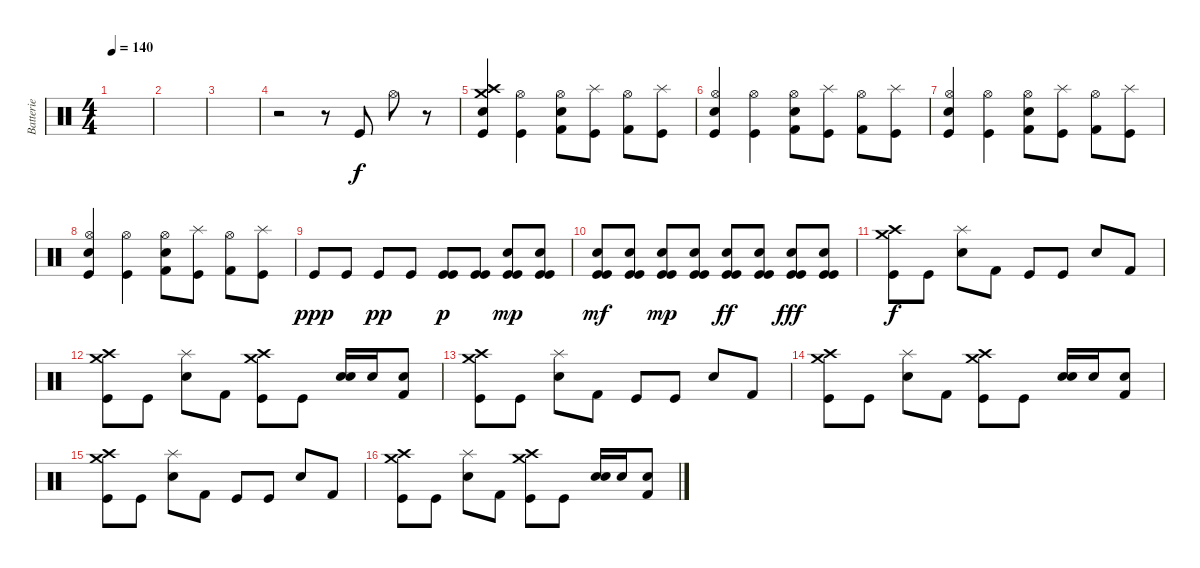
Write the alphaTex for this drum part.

\track ("Batterie" "Batterie") {instrument percussion}
\staff {score}
\articulation defaults
\ts (4 4)
\tempo 140
\clef neutral
\ks c
|
|
|
r.2 r.8 "Kick (hit)".8 "Hi-Hat (open)".8 r.8 |
("Crash high (hit)" "Crash medium (hit)" "Electric Snare (hit)" "Kick (hit)").4 ("Hi-Hat (open)" "Kick (hit)").4 ("Hi-Hat (open)" "Electric Snare (hit)" "Kick (hit) 2").8 ("Splash (hit)" "Kick (hit)").8 ("Hi-Hat (open)" "Kick (hit) 2").8 ("Splash (hit)" "Kick (hit)").8 |
("Hi-Hat (open)" "Electric Snare (hit)" "Kick (hit)").4 ("Hi-Hat (open)" "Kick (hit)").4 ("Hi-Hat (open)" "Electric Snare (hit)" "Kick (hit) 2").8 ("Splash (hit)" "Kick (hit)").8 ("Hi-Hat (open)" "Kick (hit) 2").8 ("Splash (hit)" "Kick (hit)").8 |
("Hi-Hat (open)" "Electric Snare (hit)" "Kick (hit)").4 ("Hi-Hat (open)" "Kick (hit)").4 ("Hi-Hat (open)" "Electric Snare (hit)" "Kick (hit) 2").8 ("Splash (hit)" "Kick (hit)").8 ("Hi-Hat (open)" "Kick (hit) 2").8 ("Splash (hit)" "Kick (hit)").8 |
("Hi-Hat (open)" "Electric Snare (hit)" "Kick (hit)").4 ("Hi-Hat (open)" "Kick (hit)").4 ("Hi-Hat (open)" "Electric Snare (hit)" "Kick (hit) 2").8 ("Splash (hit)" "Kick (hit)").8 ("Hi-Hat (open)" "Kick (hit) 2").8 ("Splash (hit)" "Kick (hit)").8 |
"Kick (hit)".8{dy ppp} "Kick (hit)".8 "Kick (hit)".8{dy pp} "Kick (hit)".8 ("Kick (hit)" "Kick (hit)").8{dy p} ("Kick (hit)" "Kick (hit)").8 ("Electric Snare (hit)" "Kick (hit)" "Kick (hit)").8{dy mp} ("Electric Snare (hit)" "Kick (hit)" "Kick (hit)").8 |
("Electric Snare (hit)" "Kick (hit)" "Kick (hit)").8{dy mf} ("Electric Snare (hit)" "Kick (hit)" "Kick (hit)").8 ("Electric Snare (hit)" "Kick (hit)" "Kick (hit)").8{dy mp} ("Electric Snare (hit)" "Kick (hit)" "Kick (hit)").8 ("Electric Snare (hit)" "Kick (hit)" "Kick (hit)").8{dy ff} ("Electric Snare (hit)" "Kick (hit)" "Kick (hit)").8 ("Electric Snare (hit)" "Kick (hit)" "Kick (hit)").8{dy fff} ("Electric Snare (hit)" "Kick (hit)" "Kick (hit)").8 |
("Crash medium (hit)" "Crash high (hit)" "Kick (hit)").8{dy f} "Kick (hit)".8 ("Splash (hit)" "Electric Snare (hit)").8 "Kick (hit) 2".8 "Kick (hit)".8 "Kick (hit)".8 "Snare (hit) 2".8 "Kick (hit) 2".8 |
("Crash medium (hit)" "Crash high (hit)" "Kick (hit)").8 "Kick (hit)".8 ("Splash (hit)" "Electric Snare (hit)").8 "Kick (hit) 2".8 ("Crash medium (hit)" "Crash high (hit)" "Kick (hit)").8 "Kick (hit)".8 ("Snare (hit) 2" "Electric Snare (hit)").16 "Electric Snare (hit)".16 ("Electric Snare (hit)" "Kick (hit) 2").8 |
("Crash medium (hit)" "Crash high (hit)" "Kick (hit)").8 "Kick (hit)".8 ("Splash (hit)" "Electric Snare (hit)").8 "Kick (hit) 2".8 "Kick (hit)".8 "Kick (hit)".8 "Snare (hit) 2".8 "Kick (hit) 2".8 |
("Crash medium (hit)" "Crash high (hit)" "Kick (hit)").8 "Kick (hit)".8 ("Splash (hit)" "Electric Snare (hit)").8 "Kick (hit) 2".8 ("Crash medium (hit)" "Crash high (hit)" "Kick (hit)").8 "Kick (hit)".8 ("Snare (hit) 2" "Electric Snare (hit)").16 "Electric Snare (hit)".16 ("Electric Snare (hit)" "Kick (hit) 2").8 |
("Crash medium (hit)" "Crash high (hit)" "Kick (hit)").8 "Kick (hit)".8 ("Splash (hit)" "Electric Snare (hit)").8 "Kick (hit) 2".8 "Kick (hit)".8 "Kick (hit)".8 "Snare (hit) 2".8 "Kick (hit) 2".8 |
("Crash medium (hit)" "Crash high (hit)" "Kick (hit)").8 "Kick (hit)".8 ("Splash (hit)" "Electric Snare (hit)").8 "Kick (hit) 2".8 ("Crash medium (hit)" "Crash high (hit)" "Kick (hit)").8 "Kick (hit)".8 ("Snare (hit) 2" "Electric Snare (hit)").16 "Electric Snare (hit)".16 ("Electric Snare (hit)" "Kick (hit) 2").8
